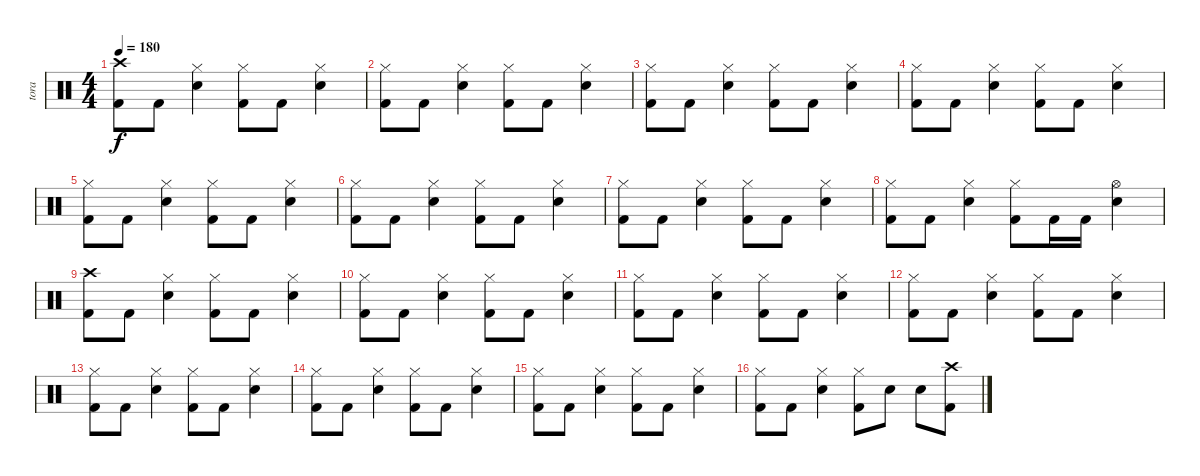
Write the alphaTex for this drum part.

\track ("tora" "tora") {instrument percussion}
\staff {score}
\articulation defaults
\ts (4 4)
\tempo 180
\clef neutral
\ks c
("Crash high (hit)" "Kick (hit) 2").8{dy f} "Kick (hit) 2".8 ("Hi-Hat (closed)" "Snare (hit) 2").4 ("Hi-Hat (closed)" "Kick (hit) 2").8 "Kick (hit) 2".8 ("Hi-Hat (closed)" "Snare (hit) 2").4 |
("Hi-Hat (closed)" "Kick (hit) 2").8 "Kick (hit) 2".8 ("Hi-Hat (closed)" "Snare (hit) 2").4 ("Hi-Hat (closed)" "Kick (hit) 2").8 "Kick (hit) 2".8 ("Hi-Hat (closed)" "Snare (hit) 2").4 |
("Hi-Hat (closed)" "Kick (hit) 2").8 "Kick (hit) 2".8 ("Hi-Hat (closed)" "Snare (hit) 2").4 ("Hi-Hat (closed)" "Kick (hit) 2").8 "Kick (hit) 2".8 ("Hi-Hat (closed)" "Snare (hit) 2").4 |
("Hi-Hat (closed)" "Kick (hit) 2").8 "Kick (hit) 2".8 ("Hi-Hat (closed)" "Snare (hit) 2").4 ("Hi-Hat (closed)" "Kick (hit) 2").8 "Kick (hit) 2".8 ("Hi-Hat (closed)" "Snare (hit) 2").4 |
("Hi-Hat (closed)" "Kick (hit) 2").8 "Kick (hit) 2".8 ("Hi-Hat (closed)" "Snare (hit) 2").4 ("Hi-Hat (closed)" "Kick (hit) 2").8 "Kick (hit) 2".8 ("Hi-Hat (closed)" "Snare (hit) 2").4 |
("Hi-Hat (closed)" "Kick (hit) 2").8 "Kick (hit) 2".8 ("Hi-Hat (closed)" "Snare (hit) 2").4 ("Hi-Hat (closed)" "Kick (hit) 2").8 "Kick (hit) 2".8 ("Hi-Hat (closed)" "Snare (hit) 2").4 |
("Hi-Hat (closed)" "Kick (hit) 2").8 "Kick (hit) 2".8 ("Hi-Hat (closed)" "Snare (hit) 2").4 ("Hi-Hat (closed)" "Kick (hit) 2").8 "Kick (hit) 2".8 ("Hi-Hat (closed)" "Snare (hit) 2").4 |
("Hi-Hat (closed)" "Kick (hit) 2").8 "Kick (hit) 2".8 ("Hi-Hat (closed)" "Snare (hit) 2").4 ("Hi-Hat (closed)" "Kick (hit) 2").8 "Kick (hit) 2".16 "Kick (hit) 2".16 ("Hi-Hat (open)" "Snare (hit) 2").4 |
("Crash high (hit)" "Kick (hit) 2").8 "Kick (hit) 2".8 ("Hi-Hat (closed)" "Snare (hit) 2").4 ("Hi-Hat (closed)" "Kick (hit) 2").8 "Kick (hit) 2".8 ("Hi-Hat (closed)" "Snare (hit) 2").4 |
("Hi-Hat (closed)" "Kick (hit) 2").8 "Kick (hit) 2".8 ("Hi-Hat (closed)" "Snare (hit) 2").4 ("Hi-Hat (closed)" "Kick (hit) 2").8 "Kick (hit) 2".8 ("Hi-Hat (closed)" "Snare (hit) 2").4 |
("Hi-Hat (closed)" "Kick (hit) 2").8 "Kick (hit) 2".8 ("Hi-Hat (closed)" "Snare (hit) 2").4 ("Hi-Hat (closed)" "Kick (hit) 2").8 "Kick (hit) 2".8 ("Hi-Hat (closed)" "Snare (hit) 2").4 |
("Hi-Hat (closed)" "Kick (hit) 2").8 "Kick (hit) 2".8 ("Hi-Hat (closed)" "Snare (hit) 2").4 ("Hi-Hat (closed)" "Kick (hit) 2").8 "Kick (hit) 2".8 ("Hi-Hat (closed)" "Snare (hit) 2").4 |
("Hi-Hat (closed)" "Kick (hit) 2").8 "Kick (hit) 2".8 ("Hi-Hat (closed)" "Snare (hit) 2").4 ("Hi-Hat (closed)" "Kick (hit) 2").8 "Kick (hit) 2".8 ("Hi-Hat (closed)" "Snare (hit) 2").4 |
("Hi-Hat (closed)" "Kick (hit) 2").8 "Kick (hit) 2".8 ("Hi-Hat (closed)" "Snare (hit) 2").4 ("Hi-Hat (closed)" "Kick (hit) 2").8 "Kick (hit) 2".8 ("Hi-Hat (closed)" "Snare (hit) 2").4 |
("Hi-Hat (closed)" "Kick (hit) 2").8 "Kick (hit) 2".8 ("Hi-Hat (closed)" "Snare (hit) 2").4 ("Hi-Hat (closed)" "Kick (hit) 2").8 "Kick (hit) 2".8 ("Hi-Hat (closed)" "Snare (hit) 2").4 |
("Hi-Hat (closed)" "Kick (hit) 2").8 "Kick (hit) 2".8 ("Hi-Hat (closed)" "Snare (hit) 2").4 ("Hi-Hat (closed)" "Kick (hit) 2").8 "Snare (hit) 2".8 "Snare (hit) 2".8 ("Crash high (hit)" "Kick (hit) 2").8
